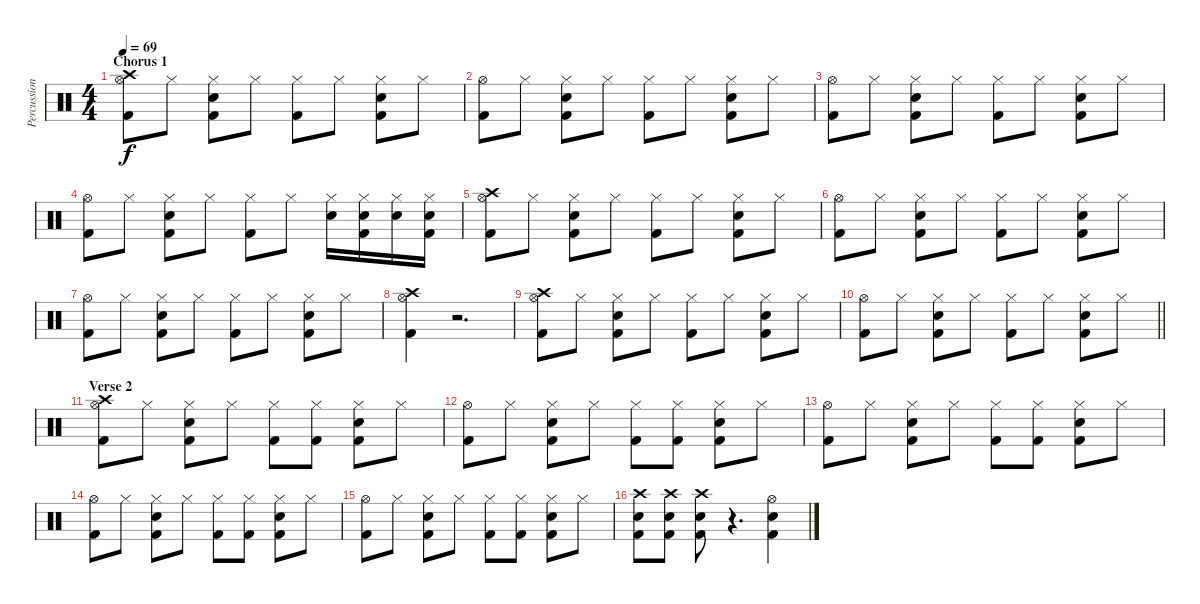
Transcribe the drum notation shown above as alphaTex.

\track ("Percussion: Mark Williams" "Percussion") {instrument percussion}
\staff {score}
\articulation defaults
\ts (4 4)
\section ("" "Chorus 1")
\tempo 69
\clef neutral
\ks c
("Crash high (hit)" "Hi-Hat (open)" "Kick (hit) 2").8{dy f} "Hi-Hat (closed)".8 ("Hi-Hat (closed)" "Snare (hit) 2" "Kick (hit) 2").8 "Hi-Hat (closed)".8 ("Hi-Hat (closed)" "Kick (hit) 2").8 "Hi-Hat (closed)".8 ("Hi-Hat (closed)" "Snare (hit) 2" "Kick (hit) 2").8 "Hi-Hat (closed)".8 |
("Hi-Hat (open)" "Kick (hit) 2").8 "Hi-Hat (closed)".8 ("Hi-Hat (closed)" "Snare (hit) 2" "Kick (hit) 2").8 "Hi-Hat (closed)".8 ("Hi-Hat (closed)" "Kick (hit) 2").8 "Hi-Hat (closed)".8 ("Hi-Hat (closed)" "Snare (hit) 2" "Kick (hit) 2").8 "Hi-Hat (closed)".8 |
("Hi-Hat (open)" "Kick (hit) 2").8 "Hi-Hat (closed)".8 ("Hi-Hat (closed)" "Snare (hit) 2" "Kick (hit) 2").8 "Hi-Hat (closed)".8 ("Hi-Hat (closed)" "Kick (hit) 2").8 "Hi-Hat (closed)".8 ("Hi-Hat (closed)" "Snare (hit) 2" "Kick (hit) 2").8 "Hi-Hat (closed)".8 |
("Hi-Hat (open)" "Kick (hit) 2").8 "Hi-Hat (closed)".8 ("Hi-Hat (closed)" "Snare (hit) 2" "Kick (hit) 2").8 "Hi-Hat (closed)".8 ("Hi-Hat (closed)" "Kick (hit) 2").8 "Hi-Hat (closed)".8 ("Hi-Hat (closed)" "Snare (hit) 2").16 ("Hi-Hat (closed)" "Snare (hit) 2" "Kick (hit) 2").16 ("Hi-Hat (closed)" "Snare (hit) 2").16 ("Hi-Hat (closed)" "Snare (hit) 2" "Kick (hit) 2").16 |
("Crash high (hit)" "Hi-Hat (open)" "Kick (hit) 2").8 "Hi-Hat (closed)".8 ("Hi-Hat (closed)" "Snare (hit) 2" "Kick (hit) 2").8 "Hi-Hat (closed)".8 ("Hi-Hat (closed)" "Kick (hit) 2").8 "Hi-Hat (closed)".8 ("Hi-Hat (closed)" "Snare (hit) 2" "Kick (hit) 2").8 "Hi-Hat (closed)".8 |
("Hi-Hat (open)" "Kick (hit) 2").8 "Hi-Hat (closed)".8 ("Hi-Hat (closed)" "Snare (hit) 2" "Kick (hit) 2").8 "Hi-Hat (closed)".8 ("Hi-Hat (closed)" "Kick (hit) 2").8 "Hi-Hat (closed)".8 ("Hi-Hat (closed)" "Snare (hit) 2" "Kick (hit) 2").8 "Hi-Hat (closed)".8 |
("Hi-Hat (open)" "Kick (hit) 2").8 "Hi-Hat (closed)".8 ("Hi-Hat (closed)" "Snare (hit) 2" "Kick (hit) 2").8 "Hi-Hat (closed)".8 ("Hi-Hat (closed)" "Kick (hit) 2").8 "Hi-Hat (closed)".8 ("Hi-Hat (closed)" "Snare (hit) 2" "Kick (hit) 2").8 "Hi-Hat (closed)".8 |
("Crash high (hit)" "Hi-Hat (open)" "Kick (hit) 2").4 r.2{d} |
("Crash high (hit)" "Hi-Hat (open)" "Kick (hit) 2").8 "Hi-Hat (closed)".8 ("Hi-Hat (closed)" "Snare (hit) 2" "Kick (hit) 2").8 "Hi-Hat (closed)".8 ("Hi-Hat (closed)" "Kick (hit) 2").8 "Hi-Hat (closed)".8 ("Hi-Hat (closed)" "Snare (hit) 2" "Kick (hit) 2").8 "Hi-Hat (closed)".8 |
\barLineRight lightlight
("Hi-Hat (open)" "Kick (hit) 2").8 "Hi-Hat (closed)".8 ("Hi-Hat (closed)" "Snare (hit) 2" "Kick (hit) 2").8 "Hi-Hat (closed)".8 ("Hi-Hat (closed)" "Kick (hit) 2").8 "Hi-Hat (closed)".8 ("Hi-Hat (closed)" "Snare (hit) 2" "Kick (hit) 2").8 "Hi-Hat (closed)".8 |
\section ("" "Verse 2")
("Crash high (hit)" "Hi-Hat (open)" "Kick (hit) 2").8 "Hi-Hat (closed)".8 ("Hi-Hat (closed)" "Snare (hit) 2" "Kick (hit) 2").8 "Hi-Hat (closed)".8 ("Hi-Hat (closed)" "Kick (hit) 2").8 ("Hi-Hat (closed)" "Kick (hit) 2").8 ("Hi-Hat (closed)" "Snare (hit) 2" "Kick (hit) 2").8 "Hi-Hat (closed)".8 |
("Hi-Hat (open)" "Kick (hit) 2").8 "Hi-Hat (closed)".8 ("Hi-Hat (closed)" "Snare (hit) 2" "Kick (hit) 2").8 "Hi-Hat (closed)".8 ("Hi-Hat (closed)" "Kick (hit) 2").8 ("Hi-Hat (closed)" "Kick (hit) 2").8 ("Hi-Hat (closed)" "Snare (hit) 2" "Kick (hit) 2").8 "Hi-Hat (closed)".8 |
("Hi-Hat (open)" "Kick (hit) 2").8 "Hi-Hat (closed)".8 ("Hi-Hat (closed)" "Snare (hit) 2" "Kick (hit) 2").8 "Hi-Hat (closed)".8 ("Hi-Hat (closed)" "Kick (hit) 2").8 ("Hi-Hat (closed)" "Kick (hit) 2").8 ("Hi-Hat (closed)" "Snare (hit) 2" "Kick (hit) 2").8 "Hi-Hat (closed)".8 |
("Hi-Hat (open)" "Kick (hit) 2").8 "Hi-Hat (closed)".8 ("Hi-Hat (closed)" "Snare (hit) 2" "Kick (hit) 2").8 "Hi-Hat (closed)".8 ("Hi-Hat (closed)" "Kick (hit) 2").8 ("Hi-Hat (closed)" "Kick (hit) 2").8 ("Hi-Hat (closed)" "Snare (hit) 2" "Kick (hit) 2").8 "Hi-Hat (closed)".8 |
("Hi-Hat (open)" "Kick (hit) 2").8 "Hi-Hat (closed)".8 ("Hi-Hat (closed)" "Snare (hit) 2" "Kick (hit) 2").8 "Hi-Hat (closed)".8 ("Hi-Hat (closed)" "Kick (hit) 2").8 ("Hi-Hat (closed)" "Kick (hit) 2").8 ("Hi-Hat (closed)" "Snare (hit) 2" "Kick (hit) 2").8 "Hi-Hat (closed)".8 |
("Crash high (hit)" "Snare (hit) 2" "Kick (hit) 2").8 ("Crash high (hit)" "Snare (hit) 2" "Kick (hit) 2").8 ("Crash high (hit)" "Snare (hit) 2" "Kick (hit) 2").8 r.4{d} ("Hi-Hat (open)" "Snare (hit) 2" "Kick (hit) 2").4
